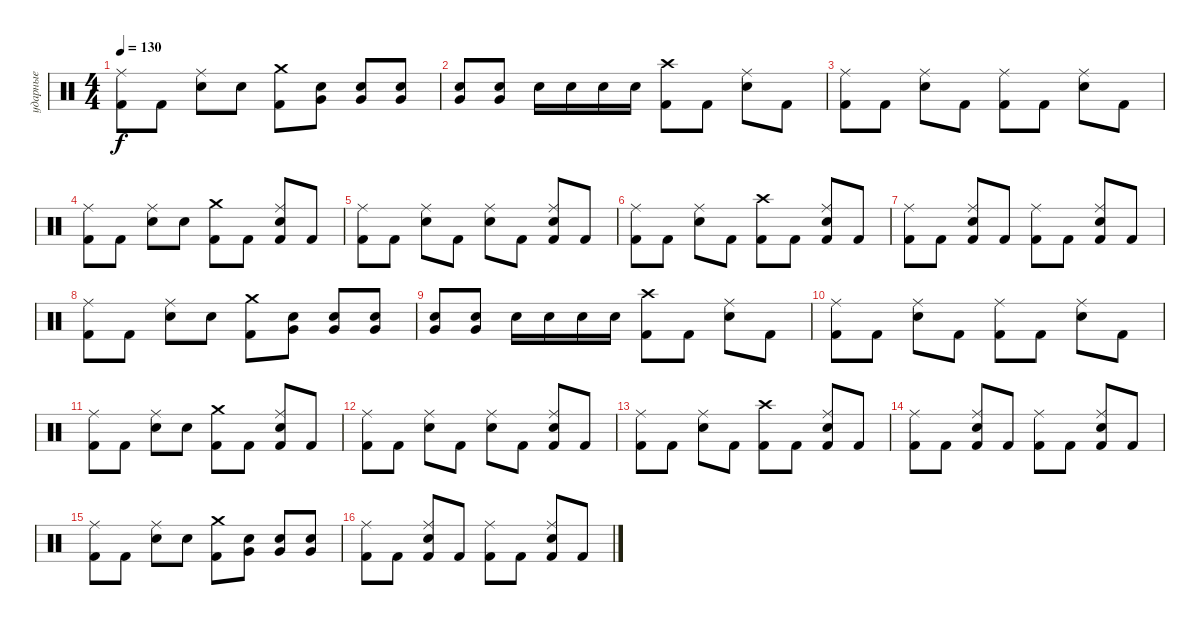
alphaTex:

\track ("ударные" "ударные") {instrument percussion}
\staff {score}
\articulation defaults
\ts (4 4)
\tempo 130
\clef neutral
\ks c
("Kick (hit) 2" "Ride (middle)").8{dy f} "Kick (hit) 2".8 ("Ride (middle)" "Electric Snare (hit)").8 "Electric Snare (hit)".8 ("Kick (hit) 2" "Crash medium (hit)").8 ("Electric Snare (hit)" "Very Low Tom (hit)").8 ("Very Low Tom (hit)" "Electric Snare (hit)").8 ("Electric Snare (hit)" "Very Low Tom (hit)").8 |
("Electric Snare (hit)" "Very Low Tom (hit)").8 ("Very Low Tom (hit)" "Electric Snare (hit)").8 "Electric Snare (hit)".16 "Electric Snare (hit)".16 "Electric Snare (hit)".16 "Electric Snare (hit)".16 ("Crash high (hit)" "Kick (hit) 2").8 "Kick (hit) 2".8 ("Ride (middle)" "Electric Snare (hit)").8 "Kick (hit) 2".8 |
("Ride (middle)" "Kick (hit) 2").8 "Kick (hit) 2".8 ("Ride (middle)" "Electric Snare (hit)").8 "Kick (hit) 2".8 ("Kick (hit) 2" "Ride (middle)").8 "Kick (hit) 2".8 ("Ride (middle)" "Electric Snare (hit)").8 "Kick (hit) 2".8 |
("Kick (hit) 2" "Ride (middle)").8 "Kick (hit) 2".8 ("Electric Snare (hit)" "Ride (middle)").8 "Electric Snare (hit)".8 ("Crash medium (hit)" "Kick (hit) 2").8 "Kick (hit) 2".8 ("Ride (middle)" "Kick (hit) 2" "Electric Snare (hit)").8 "Kick (hit) 2".8 |
("Kick (hit) 2" "Ride (middle)").8 "Kick (hit) 2".8 ("Ride (middle)" "Electric Snare (hit)").8 "Kick (hit) 2".8 ("Ride (middle)" "Electric Snare (hit)").8 "Kick (hit) 2".8 ("Ride (middle)" "Electric Snare (hit)" "Kick (hit) 2").8 "Kick (hit) 2".8 |
("Ride (middle)" "Kick (hit) 2").8 "Kick (hit) 2".8 ("Ride (middle)" "Electric Snare (hit)").8 "Kick (hit) 2".8 ("Kick (hit) 2" "Crash high (hit)").8 "Kick (hit) 2".8 ("Ride (middle)" "Kick (hit) 2" "Electric Snare (hit)").8 "Kick (hit) 2".8 |
("Ride (middle)" "Kick (hit) 2").8 "Kick (hit) 2".8 ("Kick (hit) 2" "Electric Snare (hit)" "Ride (middle)").8 "Kick (hit) 2".8 ("Ride (middle)" "Kick (hit) 2").8 "Kick (hit) 2".8 ("Kick (hit) 2" "Electric Snare (hit)" "Ride (middle)").8 "Kick (hit) 2".8 |
("Kick (hit) 2" "Ride (middle)").8 "Kick (hit) 2".8 ("Ride (middle)" "Electric Snare (hit)").8 "Electric Snare (hit)".8 ("Kick (hit) 2" "Crash medium (hit)").8 ("Electric Snare (hit)" "Very Low Tom (hit)").8 ("Very Low Tom (hit)" "Electric Snare (hit)").8 ("Electric Snare (hit)" "Very Low Tom (hit)").8 |
("Electric Snare (hit)" "Very Low Tom (hit)").8 ("Very Low Tom (hit)" "Electric Snare (hit)").8 "Electric Snare (hit)".16 "Electric Snare (hit)".16 "Electric Snare (hit)".16 "Electric Snare (hit)".16 ("Crash high (hit)" "Kick (hit) 2").8 "Kick (hit) 2".8 ("Ride (middle)" "Electric Snare (hit)").8 "Kick (hit) 2".8 |
("Ride (middle)" "Kick (hit) 2").8 "Kick (hit) 2".8 ("Ride (middle)" "Electric Snare (hit)").8 "Kick (hit) 2".8 ("Kick (hit) 2" "Ride (middle)").8 "Kick (hit) 2".8 ("Ride (middle)" "Electric Snare (hit)").8 "Kick (hit) 2".8 |
("Kick (hit) 2" "Ride (middle)").8 "Kick (hit) 2".8 ("Electric Snare (hit)" "Ride (middle)").8 "Electric Snare (hit)".8 ("Crash medium (hit)" "Kick (hit) 2").8 "Kick (hit) 2".8 ("Ride (middle)" "Kick (hit) 2" "Electric Snare (hit)").8 "Kick (hit) 2".8 |
("Kick (hit) 2" "Ride (middle)").8 "Kick (hit) 2".8 ("Ride (middle)" "Electric Snare (hit)").8 "Kick (hit) 2".8 ("Ride (middle)" "Electric Snare (hit)").8 "Kick (hit) 2".8 ("Ride (middle)" "Electric Snare (hit)" "Kick (hit) 2").8 "Kick (hit) 2".8 |
("Ride (middle)" "Kick (hit) 2").8 "Kick (hit) 2".8 ("Ride (middle)" "Electric Snare (hit)").8 "Kick (hit) 2".8 ("Kick (hit) 2" "Crash high (hit)").8 "Kick (hit) 2".8 ("Ride (middle)" "Kick (hit) 2" "Electric Snare (hit)").8 "Kick (hit) 2".8 |
("Ride (middle)" "Kick (hit) 2").8 "Kick (hit) 2".8 ("Kick (hit) 2" "Electric Snare (hit)" "Ride (middle)").8 "Kick (hit) 2".8 ("Ride (middle)" "Kick (hit) 2").8 "Kick (hit) 2".8 ("Kick (hit) 2" "Electric Snare (hit)" "Ride (middle)").8 "Kick (hit) 2".8 |
("Kick (hit) 2" "Ride (middle)").8 "Kick (hit) 2".8 ("Ride (middle)" "Electric Snare (hit)").8 "Electric Snare (hit)".8 ("Kick (hit) 2" "Crash medium (hit)").8 ("Electric Snare (hit)" "Very Low Tom (hit)").8 ("Very Low Tom (hit)" "Electric Snare (hit)").8 ("Electric Snare (hit)" "Very Low Tom (hit)").8 |
("Ride (middle)" "Kick (hit) 2").8 "Kick (hit) 2".8 ("Kick (hit) 2" "Electric Snare (hit)" "Ride (middle)").8 "Kick (hit) 2".8 ("Ride (middle)" "Kick (hit) 2").8 "Kick (hit) 2".8 ("Kick (hit) 2" "Electric Snare (hit)" "Ride (middle)").8 "Kick (hit) 2".8
